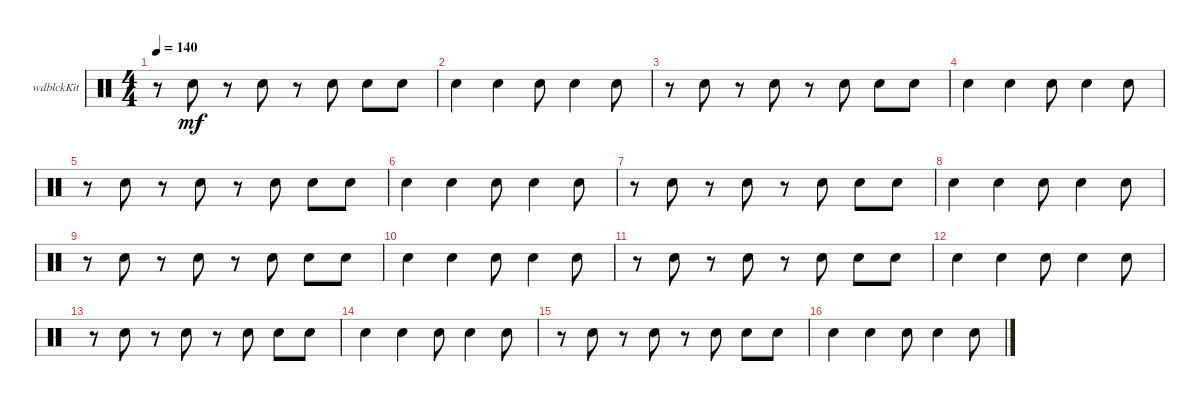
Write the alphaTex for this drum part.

\defaultSystemsLayout 4
\bracketExtendMode groupsimilarinstruments
\firstSystemTrackNameOrientation horizontal
\otherSystemsTrackNameOrientation horizontal
\track ("Woodblock" "wdblckKit") {instrument percussion}
\staff {score}
\articulation defaults
\ts (4 4)
\tempo 140
\clef neutral
\scale
0.275862
\ks c
r.8{dy mf} "Snare (hit) 2".8 r.8 "Snare (hit) 2".8 r.8 "Snare (hit) 2".8 "Snare (hit) 2".8 "Snare (hit) 2".8 |
\scale
0.224138 "Snare (hit) 2".4 "Snare (hit) 2".4 "Snare (hit) 2".8 "Snare (hit) 2".4 "Snare (hit) 2".8 |
\scale
0.275862 r.8 "Snare (hit) 2".8 r.8 "Snare (hit) 2".8 r.8 "Snare (hit) 2".8 "Snare (hit) 2".8 "Snare (hit) 2".8 |
\scale
0.224138 "Snare (hit) 2".4 "Snare (hit) 2".4 "Snare (hit) 2".8 "Snare (hit) 2".4 "Snare (hit) 2".8 |
\scale
0.275862 r.8 "Snare (hit) 2".8 r.8 "Snare (hit) 2".8 r.8 "Snare (hit) 2".8 "Snare (hit) 2".8 "Snare (hit) 2".8 |
\scale
0.224138 "Snare (hit) 2".4 "Snare (hit) 2".4 "Snare (hit) 2".8 "Snare (hit) 2".4 "Snare (hit) 2".8 |
\scale
0.275862 r.8 "Snare (hit) 2".8 r.8 "Snare (hit) 2".8 r.8 "Snare (hit) 2".8 "Snare (hit) 2".8 "Snare (hit) 2".8 |
\scale
0.224138 "Snare (hit) 2".4 "Snare (hit) 2".4 "Snare (hit) 2".8 "Snare (hit) 2".4 "Snare (hit) 2".8 |
\scale
0.275862 r.8 "Snare (hit) 2".8 r.8 "Snare (hit) 2".8 r.8 "Snare (hit) 2".8 "Snare (hit) 2".8 "Snare (hit) 2".8 |
\scale
0.224138 "Snare (hit) 2".4 "Snare (hit) 2".4 "Snare (hit) 2".8 "Snare (hit) 2".4 "Snare (hit) 2".8 |
\scale
0.275862 r.8 "Snare (hit) 2".8 r.8 "Snare (hit) 2".8 r.8 "Snare (hit) 2".8 "Snare (hit) 2".8 "Snare (hit) 2".8 |
\scale
0.224138 "Snare (hit) 2".4 "Snare (hit) 2".4 "Snare (hit) 2".8 "Snare (hit) 2".4 "Snare (hit) 2".8 |
\scale
0.275862 r.8 "Snare (hit) 2".8 r.8 "Snare (hit) 2".8 r.8 "Snare (hit) 2".8 "Snare (hit) 2".8 "Snare (hit) 2".8 |
\scale
0.224138 "Snare (hit) 2".4 "Snare (hit) 2".4 "Snare (hit) 2".8 "Snare (hit) 2".4 "Snare (hit) 2".8 |
\scale
0.275862 r.8 "Snare (hit) 2".8 r.8 "Snare (hit) 2".8 r.8 "Snare (hit) 2".8 "Snare (hit) 2".8 "Snare (hit) 2".8 |
\scale
0.224138 "Snare (hit) 2".4 "Snare (hit) 2".4 "Snare (hit) 2".8 "Snare (hit) 2".4 "Snare (hit) 2".8
